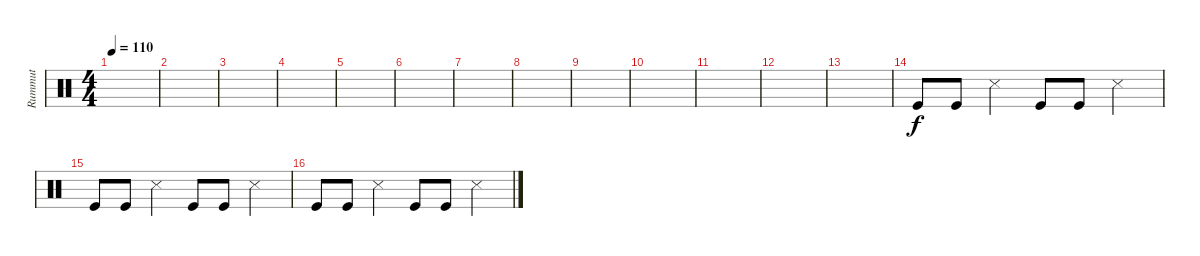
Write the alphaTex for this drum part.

\track ("Rummut" "Rummut") {instrument percussion}
\staff {score}
\articulation defaults
\ts (4 4)
\tempo 110
\clef neutral
\ks c
|
|
|
|
|
|
|
|
|
|
|
|
|
"Kick (hit)".8 "Kick (hit)".8 "Snare (side stick) 3".4 "Kick (hit)".8 "Kick (hit)".8 "Snare (side stick) 3".4 |
"Kick (hit)".8 "Kick (hit)".8 "Snare (side stick) 3".4 "Kick (hit)".8 "Kick (hit)".8 "Snare (side stick) 3".4 |
"Kick (hit)".8 "Kick (hit)".8 "Snare (side stick) 3".4 "Kick (hit)".8 "Kick (hit)".8 "Snare (side stick) 3".4
